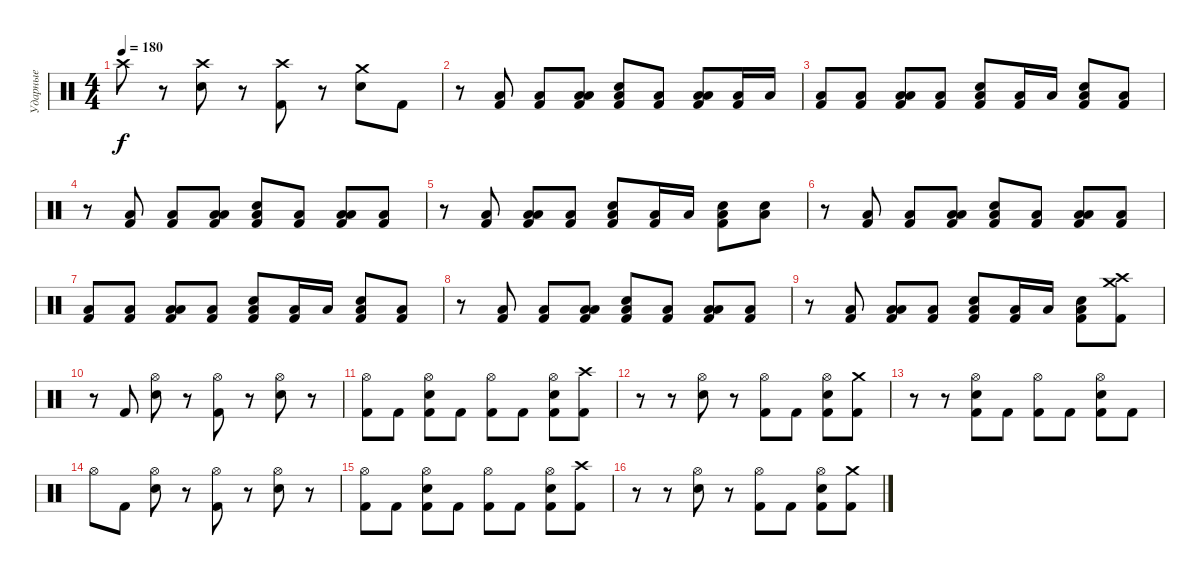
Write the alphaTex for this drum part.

\track ("Ударные" "Ударные") {instrument percussion}
\staff {score}
\articulation defaults
\ts (4 4)
\tempo 180
\clef neutral
\ks c "Crash high (hit)".8{dy f}
r.8 ("Crash high (hit)" "Electric Snare (hit)").8 r.8 ("Crash high (hit)" "Kick (hit) 2").8 r.8 ("Crash medium (hit)" "Electric Snare (hit)").8 "Kick (hit) 2".8 |
r.8 ("Low Floor Tom (hit)" "Kick (hit) 2").8 ("Low Floor Tom (hit)" "Kick (hit) 2").8 ("Low Tom (hit)" "Low Floor Tom (hit)" "Kick (hit) 2").8 ("Low Floor Tom (hit)" "Electric Snare (hit)" "Kick (hit) 2").8 ("Low Floor Tom (hit)" "Kick (hit) 2").8 ("Low Tom (hit)" "Low Floor Tom (hit)" "Kick (hit) 2").8 ("Low Floor Tom (hit)" "Kick (hit) 2").16 "Low Floor Tom (hit)".16 |
("Low Floor Tom (hit)" "Kick (hit) 2").8 ("Low Floor Tom (hit)" "Kick (hit) 2").8 ("Low Tom (hit)" "Low Floor Tom (hit)" "Kick (hit) 2").8 ("Low Floor Tom (hit)" "Kick (hit) 2").8 ("Low Floor Tom (hit)" "Electric Snare (hit)" "Kick (hit) 2").8 ("Low Floor Tom (hit)" "Kick (hit) 2").16 "Low Tom (hit)".16 ("Low Floor Tom (hit)" "Electric Snare (hit)" "Kick (hit) 2").8 ("Low Floor Tom (hit)" "Kick (hit) 2").8 |
r.8 ("Low Floor Tom (hit)" "Kick (hit) 2").8 ("Low Floor Tom (hit)" "Kick (hit) 2").8 ("Low Tom (hit)" "Low Floor Tom (hit)" "Kick (hit) 2").8 ("Low Floor Tom (hit)" "Electric Snare (hit)" "Kick (hit) 2").8 ("Low Floor Tom (hit)" "Kick (hit) 2").8 ("Low Tom (hit)" "Low Floor Tom (hit)" "Kick (hit) 2").8 ("Low Floor Tom (hit)" "Kick (hit) 2").8 |
r.8 ("Low Floor Tom (hit)" "Kick (hit) 2").8 ("Low Tom (hit)" "Low Floor Tom (hit)" "Kick (hit) 2").8 ("Low Floor Tom (hit)" "Kick (hit) 2").8 ("Low Floor Tom (hit)" "Electric Snare (hit)" "Kick (hit) 2").8 ("Low Floor Tom (hit)" "Kick (hit) 2").16 "Low Tom (hit)".16 ("Low Floor Tom (hit)" "Electric Snare (hit)" "Kick (hit) 2").8 ("Low Floor Tom (hit)" "Electric Snare (hit)").8 |
r.8 ("Low Floor Tom (hit)" "Kick (hit) 2").8 ("Low Floor Tom (hit)" "Kick (hit) 2").8 ("Low Tom (hit)" "Low Floor Tom (hit)" "Kick (hit) 2").8 ("Low Floor Tom (hit)" "Electric Snare (hit)" "Kick (hit) 2").8 ("Low Floor Tom (hit)" "Kick (hit) 2").8 ("Low Tom (hit)" "Low Floor Tom (hit)" "Kick (hit) 2").8 ("Low Floor Tom (hit)" "Kick (hit) 2").8 |
("Low Floor Tom (hit)" "Kick (hit) 2").8 ("Low Floor Tom (hit)" "Kick (hit) 2").8 ("Low Tom (hit)" "Low Floor Tom (hit)" "Kick (hit) 2").8 ("Low Floor Tom (hit)" "Kick (hit) 2").8 ("Low Floor Tom (hit)" "Electric Snare (hit)" "Kick (hit) 2").8 ("Low Floor Tom (hit)" "Kick (hit) 2").16 "Low Tom (hit)".16 ("Low Floor Tom (hit)" "Electric Snare (hit)" "Kick (hit) 2").8 ("Low Floor Tom (hit)" "Kick (hit) 2").8 |
r.8 ("Low Floor Tom (hit)" "Kick (hit) 2").8 ("Low Floor Tom (hit)" "Kick (hit) 2").8 ("Low Tom (hit)" "Low Floor Tom (hit)" "Kick (hit) 2").8 ("Low Floor Tom (hit)" "Electric Snare (hit)" "Kick (hit) 2").8 ("Low Floor Tom (hit)" "Kick (hit) 2").8 ("Low Tom (hit)" "Low Floor Tom (hit)" "Kick (hit) 2").8 ("Low Floor Tom (hit)" "Kick (hit) 2").8 |
r.8 ("Low Floor Tom (hit)" "Kick (hit) 2").8 ("Low Tom (hit)" "Low Floor Tom (hit)" "Kick (hit) 2").8 ("Low Floor Tom (hit)" "Kick (hit) 2").8 ("Low Floor Tom (hit)" "Electric Snare (hit)" "Kick (hit) 2").8 ("Low Floor Tom (hit)" "Kick (hit) 2").16 "Low Tom (hit)".16 ("Low Floor Tom (hit)" "Electric Snare (hit)" "Kick (hit) 2").8 ("Crash medium (hit)" "Crash high (hit)" "Kick (hit) 2").8 |
r.8 "Kick (hit) 2".8 ("Hi-Hat (open)" "Electric Snare (hit)").8 r.8 ("Hi-Hat (open)" "Kick (hit) 2").8 r.8 ("Hi-Hat (open)" "Electric Snare (hit)").8 r.8 |
("Hi-Hat (open)" "Kick (hit) 2").8 "Kick (hit) 2".8 ("Hi-Hat (open)" "Electric Snare (hit)" "Kick (hit) 2").8 "Kick (hit) 2".8 ("Hi-Hat (open)" "Kick (hit) 2").8 "Kick (hit) 2".8 ("Hi-Hat (open)" "Electric Snare (hit)" "Kick (hit) 2").8 ("Crash high (hit)" "Kick (hit) 2").8 |
r.8 r.8 ("Hi-Hat (open)" "Electric Snare (hit)").8 r.8 ("Hi-Hat (open)" "Kick (hit) 2").8 "Kick (hit) 2".8 ("Hi-Hat (open)" "Electric Snare (hit)" "Kick (hit) 2").8 ("Crash medium (hit)" "Kick (hit) 2").8 |
r.8 r.8 ("Hi-Hat (open)" "Electric Snare (hit)" "Kick (hit) 2").8 "Kick (hit) 2".8 ("Hi-Hat (open)" "Kick (hit) 2").8 "Kick (hit) 2".8 ("Hi-Hat (open)" "Electric Snare (hit)" "Kick (hit) 2").8 "Kick (hit) 2".8 |
"Hi-Hat (open)".8 "Kick (hit) 2".8 ("Hi-Hat (open)" "Electric Snare (hit)").8 r.8 ("Hi-Hat (open)" "Kick (hit) 2").8 r.8 ("Hi-Hat (open)" "Electric Snare (hit)").8 r.8 |
("Hi-Hat (open)" "Kick (hit) 2").8 "Kick (hit) 2".8 ("Hi-Hat (open)" "Electric Snare (hit)" "Kick (hit) 2").8 "Kick (hit) 2".8 ("Hi-Hat (open)" "Kick (hit) 2").8 "Kick (hit) 2".8 ("Hi-Hat (open)" "Electric Snare (hit)" "Kick (hit) 2").8 ("Crash high (hit)" "Kick (hit) 2").8 |
r.8 r.8 ("Hi-Hat (open)" "Electric Snare (hit)").8 r.8 ("Hi-Hat (open)" "Kick (hit) 2").8 "Kick (hit) 2".8 ("Hi-Hat (open)" "Electric Snare (hit)" "Kick (hit) 2").8 ("Crash medium (hit)" "Kick (hit) 2").8
